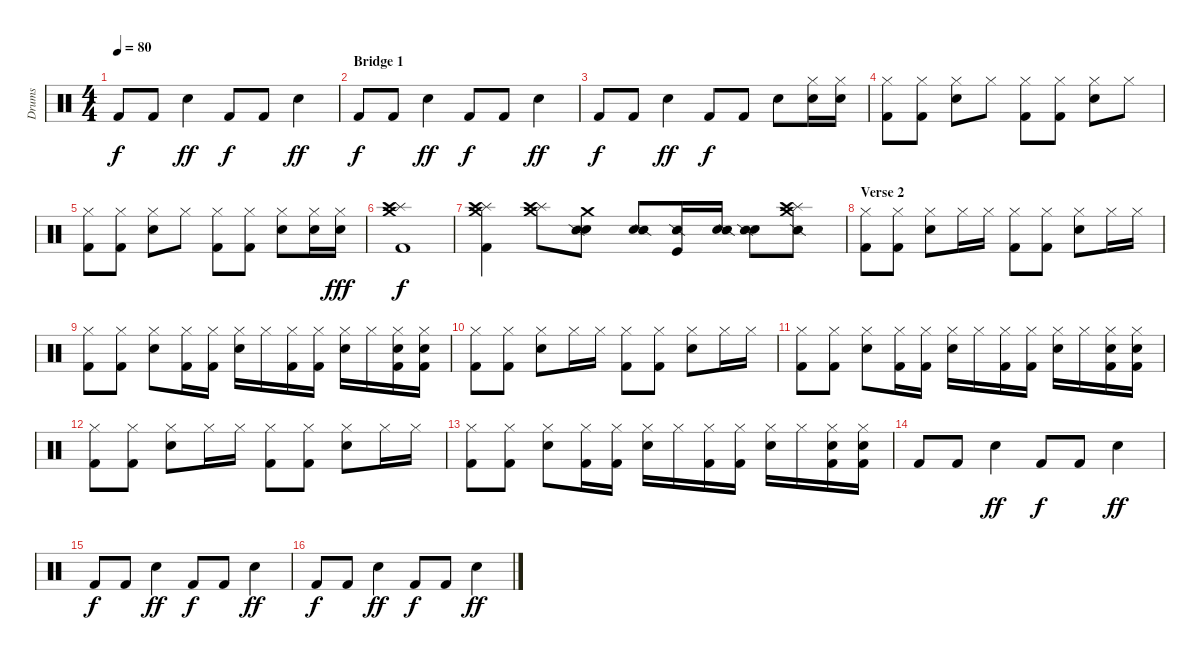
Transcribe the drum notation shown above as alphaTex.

\track ("Drums" "Drums") {instrument percussion}
\staff {score}
\articulation defaults
\ts (4 4)
\tempo 80
\clef neutral
\ks c "Kick (hit) 2".8{dy f} "Kick (hit) 2".8 "Electric Snare (hit)".4{dy ff} "Kick (hit) 2".8{dy f} "Kick (hit) 2".8 "Electric Snare (hit)".4{dy ff}
|
\section ("" "Bridge 1")
"Kick (hit) 2".8{dy f} "Kick (hit) 2".8 "Electric Snare (hit)".4{dy ff} "Kick (hit) 2".8{dy f} "Kick (hit) 2".8 "Electric Snare (hit)".4{dy ff} |
"Kick (hit) 2".8{dy f} "Kick (hit) 2".8 "Electric Snare (hit)".4{dy ff} "Kick (hit) 2".8{dy f} "Kick (hit) 2".8 "Electric Snare (hit)".8 ("Hi-Hat (closed)" "Electric Snare (hit)").16 ("Hi-Hat (closed)" "Electric Snare (hit)").16 |
("Hi-Hat (closed)" "Kick (hit) 2").8 ("Hi-Hat (closed)" "Kick (hit) 2").8 ("Hi-Hat (closed)" "Electric Snare (hit)").8 "Hi-Hat (closed)".8 ("Hi-Hat (closed)" "Kick (hit) 2").8 ("Hi-Hat (closed)" "Kick (hit) 2").8 ("Hi-Hat (closed)" "Electric Snare (hit)").8 "Hi-Hat (closed)".8 |
("Hi-Hat (closed)" "Kick (hit) 2").8 ("Hi-Hat (closed)" "Kick (hit) 2").8 ("Hi-Hat (closed)" "Electric Snare (hit)").8 "Hi-Hat (closed)".8 ("Hi-Hat (closed)" "Kick (hit) 2").8 ("Hi-Hat (closed)" "Kick (hit) 2").8 ("Hi-Hat (closed)" "Electric Snare (hit)").8 ("Hi-Hat (closed)" "Electric Snare (hit)").16 ("Hi-Hat (closed)" "Electric Snare (hit)").16{dy fff} |
("Crash medium (hit)" "Splash (hit)" "Crash high (hit)" "Kick (hit) 2").1{dy f} |
("Crash medium (hit)" "Splash (hit)" "Crash high (hit)" "Kick (hit) 2").4 ("Crash medium (hit)" "Splash (hit)" "Crash high (hit)").8 ("Crash medium (hit)" "Metronome (bell)" "Snare (side stick) 2").8 ("Metronome (bell)" "Snare (side stick) 2").8 ("Kick (hit)" "Snare (side stick) 2").16 ("Metronome (bell)" "Snare (side stick) 2").16 ("Metronome (bell)" "Snare (side stick) 2").8 ("Crash medium (hit)" "Splash (hit)" "Crash high (hit)" "Snare (side stick) 2").8 |
\section ("" "Verse 2")
("Hi-Hat (closed)" "Kick (hit) 2").8 ("Hi-Hat (closed)" "Kick (hit) 2").8 ("Hi-Hat (closed)" "Electric Snare (hit)").8 "Hi-Hat (closed)".16 "Hi-Hat (closed)".16 ("Hi-Hat (closed)" "Kick (hit) 2").8 ("Hi-Hat (closed)" "Kick (hit) 2").8 ("Hi-Hat (closed)" "Electric Snare (hit)").8 "Hi-Hat (closed)".16 "Hi-Hat (closed)".16 |
("Hi-Hat (closed)" "Kick (hit) 2").8 ("Hi-Hat (closed)" "Kick (hit) 2").8 ("Hi-Hat (closed)" "Electric Snare (hit)").8 ("Hi-Hat (closed)" "Kick (hit) 2").16 ("Hi-Hat (closed)" "Kick (hit) 2").16 ("Hi-Hat (closed)" "Electric Snare (hit)").16 "Hi-Hat (closed)".16 ("Hi-Hat (closed)" "Kick (hit) 2").16 ("Hi-Hat (closed)" "Kick (hit) 2").16 ("Hi-Hat (closed)" "Electric Snare (hit)").16 "Hi-Hat (closed)".16 ("Hi-Hat (closed)" "Electric Snare (hit)" "Kick (hit) 2").16 ("Hi-Hat (closed)" "Electric Snare (hit)" "Kick (hit) 2").16 |
("Hi-Hat (closed)" "Kick (hit) 2").8 ("Hi-Hat (closed)" "Kick (hit) 2").8 ("Hi-Hat (closed)" "Electric Snare (hit)").8 "Hi-Hat (closed)".16 "Hi-Hat (closed)".16 ("Hi-Hat (closed)" "Kick (hit) 2").8 ("Hi-Hat (closed)" "Kick (hit) 2").8 ("Hi-Hat (closed)" "Electric Snare (hit)").8 "Hi-Hat (closed)".16 "Hi-Hat (closed)".16 |
("Hi-Hat (closed)" "Kick (hit) 2").8 ("Hi-Hat (closed)" "Kick (hit) 2").8 ("Hi-Hat (closed)" "Electric Snare (hit)").8 ("Hi-Hat (closed)" "Kick (hit) 2").16 ("Hi-Hat (closed)" "Kick (hit) 2").16 ("Hi-Hat (closed)" "Electric Snare (hit)").16 "Hi-Hat (closed)".16 ("Hi-Hat (closed)" "Kick (hit) 2").16 ("Hi-Hat (closed)" "Kick (hit) 2").16 ("Hi-Hat (closed)" "Electric Snare (hit)").16 "Hi-Hat (closed)".16 ("Hi-Hat (closed)" "Electric Snare (hit)" "Kick (hit) 2").16 ("Hi-Hat (closed)" "Electric Snare (hit)" "Kick (hit) 2").16 |
("Hi-Hat (closed)" "Kick (hit) 2").8 ("Hi-Hat (closed)" "Kick (hit) 2").8 ("Hi-Hat (closed)" "Electric Snare (hit)").8 "Hi-Hat (closed)".16 "Hi-Hat (closed)".16 ("Hi-Hat (closed)" "Kick (hit) 2").8 ("Hi-Hat (closed)" "Kick (hit) 2").8 ("Hi-Hat (closed)" "Electric Snare (hit)").8 "Hi-Hat (closed)".16 "Hi-Hat (closed)".16 |
("Hi-Hat (closed)" "Kick (hit) 2").8 ("Hi-Hat (closed)" "Kick (hit) 2").8 ("Hi-Hat (closed)" "Electric Snare (hit)").8 ("Hi-Hat (closed)" "Kick (hit) 2").16 ("Hi-Hat (closed)" "Kick (hit) 2").16 ("Hi-Hat (closed)" "Electric Snare (hit)").16 "Hi-Hat (closed)".16 ("Hi-Hat (closed)" "Kick (hit) 2").16 ("Hi-Hat (closed)" "Kick (hit) 2").16 ("Hi-Hat (closed)" "Electric Snare (hit)").16 "Hi-Hat (closed)".16 ("Hi-Hat (closed)" "Electric Snare (hit)" "Kick (hit) 2").16 ("Hi-Hat (closed)" "Electric Snare (hit)" "Kick (hit) 2").16 |
"Kick (hit) 2".8 "Kick (hit) 2".8 "Electric Snare (hit)".4{dy ff} "Kick (hit) 2".8{dy f} "Kick (hit) 2".8 "Electric Snare (hit)".4{dy ff} |
"Kick (hit) 2".8{dy f} "Kick (hit) 2".8 "Electric Snare (hit)".4{dy ff} "Kick (hit) 2".8{dy f} "Kick (hit) 2".8 "Electric Snare (hit)".4{dy ff} |
"Kick (hit) 2".8{dy f} "Kick (hit) 2".8 "Electric Snare (hit)".4{dy ff} "Kick (hit) 2".8{dy f} "Kick (hit) 2".8 "Electric Snare (hit)".4{dy ff}
